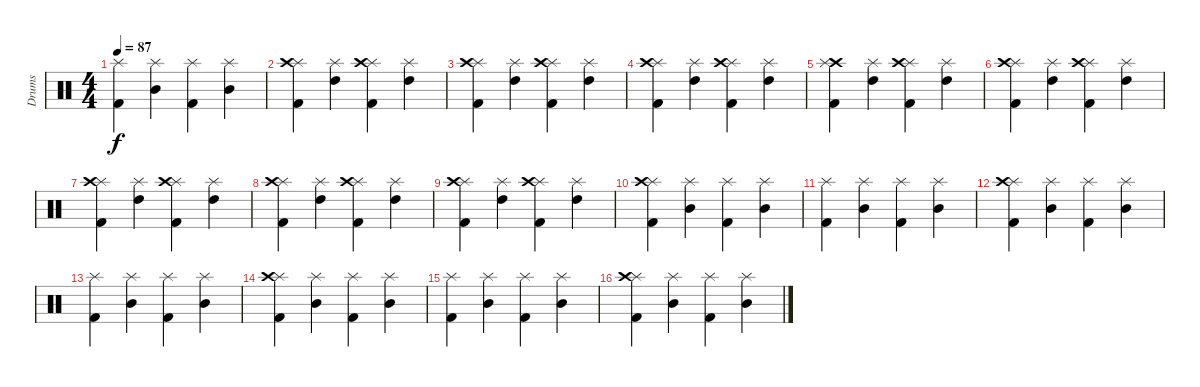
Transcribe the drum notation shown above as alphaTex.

\track ("Drums" "Drums") {instrument percussion}
\staff {score}
\articulation defaults
\ts (4 4)
\tempo 87
\clef neutral
\ks c
("Splash (hit)" "Kick (hit) 2").4{dy f} ("Splash (hit)" "Mid Tom (hit)").4 ("Splash (hit)" "Kick (hit) 2").4 ("Splash (hit)" "Mid Tom (hit)").4 |
("Splash (hit)" "Crash high (hit)" "Kick (hit) 2").4 ("Splash (hit)" "High Tom (hit)").4 ("Splash (hit)" "Crash high (hit)" "Kick (hit) 2").4 ("Splash (hit)" "High Tom (hit)").4 |
("Splash (hit)" "Crash high (hit)" "Kick (hit) 2").4 ("Splash (hit)" "High Tom (hit)").4 ("Splash (hit)" "Crash high (hit)" "Kick (hit) 2").4 ("Splash (hit)" "High Tom (hit)").4 |
("Splash (hit)" "Crash high (hit)" "Kick (hit) 2").4 ("Splash (hit)" "High Tom (hit)").4 ("Splash (hit)" "Crash high (hit)" "Kick (hit) 2").4 ("Splash (hit)" "High Tom (hit)").4 |
("Crash high (hit)" "Splash (hit)" "Kick (hit) 2").4 ("Splash (hit)" "High Tom (hit)").4 ("Splash (hit)" "Crash high (hit)" "Kick (hit) 2").4 ("Splash (hit)" "High Tom (hit)").4 |
("Splash (hit)" "Crash high (hit)" "Kick (hit) 2").4 ("Splash (hit)" "High Tom (hit)").4 ("Splash (hit)" "Crash high (hit)" "Kick (hit) 2").4 ("Splash (hit)" "High Tom (hit)").4 |
("Splash (hit)" "Crash high (hit)" "Kick (hit) 2").4 ("Splash (hit)" "High Tom (hit)").4 ("Splash (hit)" "Crash high (hit)" "Kick (hit) 2").4 ("Splash (hit)" "High Tom (hit)").4 |
("Splash (hit)" "Crash high (hit)" "Kick (hit) 2").4 ("Splash (hit)" "High Tom (hit)").4 ("Splash (hit)" "Crash high (hit)" "Kick (hit) 2").4 ("Splash (hit)" "High Tom (hit)").4 |
("Splash (hit)" "Crash high (hit)" "Kick (hit) 2").4 ("Splash (hit)" "High Tom (hit)").4 ("Splash (hit)" "Crash high (hit)" "Kick (hit) 2").4 ("Splash (hit)" "High Tom (hit)").4 |
("Splash (hit)" "Crash high (hit)" "Kick (hit) 2").4 ("Splash (hit)" "Mid Tom (hit)").4 ("Splash (hit)" "Kick (hit) 2").4 ("Splash (hit)" "Mid Tom (hit)").4 |
("Splash (hit)" "Kick (hit) 2").4 ("Splash (hit)" "Mid Tom (hit)").4 ("Splash (hit)" "Kick (hit) 2").4 ("Splash (hit)" "Mid Tom (hit)").4 |
("Splash (hit)" "Crash high (hit)" "Kick (hit) 2").4 ("Splash (hit)" "Mid Tom (hit)").4 ("Splash (hit)" "Kick (hit) 2").4 ("Splash (hit)" "Mid Tom (hit)").4 |
("Splash (hit)" "Kick (hit) 2").4 ("Splash (hit)" "Mid Tom (hit)").4 ("Splash (hit)" "Kick (hit) 2").4 ("Splash (hit)" "Mid Tom (hit)").4 |
("Splash (hit)" "Crash high (hit)" "Kick (hit) 2").4 ("Splash (hit)" "Mid Tom (hit)").4 ("Splash (hit)" "Kick (hit) 2").4 ("Splash (hit)" "Mid Tom (hit)").4 |
("Splash (hit)" "Kick (hit) 2").4 ("Splash (hit)" "Mid Tom (hit)").4 ("Splash (hit)" "Kick (hit) 2").4 ("Splash (hit)" "Mid Tom (hit)").4 |
("Splash (hit)" "Crash high (hit)" "Kick (hit) 2").4 ("Splash (hit)" "Mid Tom (hit)").4 ("Splash (hit)" "Kick (hit) 2").4 ("Splash (hit)" "Mid Tom (hit)").4
